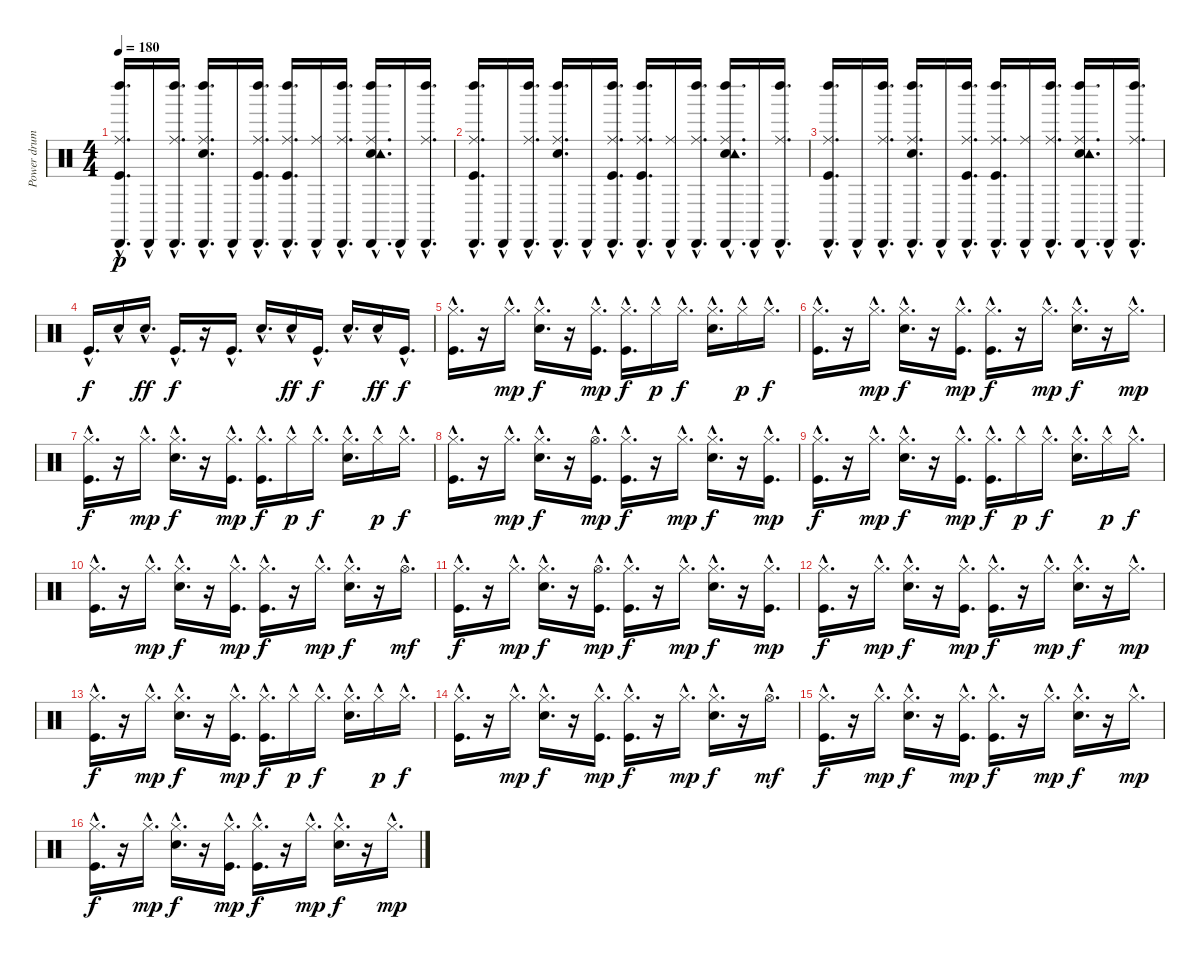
\track ("Power drum" "Power drum") {instrument percussion}
\staff {score}
\articulation defaults
\ts (4 4)
\tempo 180
\clef neutral
\ks c
("Kick (hit)"{hac} "Ride (middle)"{hac} "Left Maraca (hit)"{hac} "Cabasa (hit)"{hac}).16{d dy p} "Cabasa (hit)"{hac}.16 ("Ride (middle)"{hac} "Left Maraca (hit)"{hac} "Cabasa (hit)"{hac}).16{d} ("Snare (hit) 2"{hac} "Ride (middle)"{hac} "Left Maraca (hit)"{hac} "Cabasa (hit)"{hac}).16{d} "Cabasa (hit)"{hac}.16 ("Kick (hit)"{hac} "Ride (middle)"{hac} "Left Maraca (hit)"{hac} "Cabasa (hit)"{hac}).16{d} ("Kick (hit)"{hac} "Ride (middle)"{hac} "Left Maraca (hit)"{hac} "Cabasa (hit)"{hac}).16{d} ("Ride (middle)"{hac} "Cabasa (hit)"{hac}).16 ("Ride (middle)"{hac} "Left Maraca (hit)"{hac} "Cabasa (hit)"{hac}).16{d} ("Snare (hit) 2"{hac} "Ride (middle)"{hac} "Tambourine (hit)"{hac} "Left Maraca (hit)"{hac} "Cabasa (hit)"{hac}).16{d} "Cabasa (hit)"{hac}.16 ("Ride (middle)"{hac} "Left Maraca (hit)"{hac} "Cabasa (hit)"{hac}).16{d} |
("Kick (hit)"{hac} "Ride (middle)"{hac} "Left Maraca (hit)"{hac} "Cabasa (hit)"{hac}).16{d} "Cabasa (hit)"{hac}.16 ("Ride (middle)"{hac} "Left Maraca (hit)"{hac} "Cabasa (hit)"{hac}).16{d} ("Snare (hit) 2"{hac} "Ride (middle)"{hac} "Left Maraca (hit)"{hac} "Cabasa (hit)"{hac}).16{d} "Cabasa (hit)"{hac}.16 ("Kick (hit)"{hac} "Ride (middle)"{hac} "Left Maraca (hit)"{hac} "Cabasa (hit)"{hac}).16{d} ("Kick (hit)"{hac} "Ride (middle)"{hac} "Left Maraca (hit)"{hac} "Cabasa (hit)"{hac}).16{d} ("Ride (middle)"{hac} "Cabasa (hit)"{hac}).16 ("Ride (middle)"{hac} "Left Maraca (hit)"{hac} "Cabasa (hit)"{hac}).16{d} ("Snare (hit) 2"{hac} "Ride (middle)"{hac} "Tambourine (hit)"{hac} "Left Maraca (hit)"{hac} "Cabasa (hit)"{hac}).16{d} "Cabasa (hit)"{hac}.16 ("Ride (middle)"{hac} "Left Maraca (hit)"{hac} "Cabasa (hit)"{hac}).16{d} |
("Kick (hit)"{hac} "Ride (middle)"{hac} "Left Maraca (hit)"{hac} "Cabasa (hit)"{hac}).16{d} "Cabasa (hit)"{hac}.16 ("Ride (middle)"{hac} "Left Maraca (hit)"{hac} "Cabasa (hit)"{hac}).16{d} ("Snare (hit) 2"{hac} "Ride (middle)"{hac} "Left Maraca (hit)"{hac} "Cabasa (hit)"{hac}).16{d} "Cabasa (hit)"{hac}.16 ("Kick (hit)"{hac} "Ride (middle)"{hac} "Left Maraca (hit)"{hac} "Cabasa (hit)"{hac}).16{d} ("Kick (hit)"{hac} "Ride (middle)"{hac} "Left Maraca (hit)"{hac} "Cabasa (hit)"{hac}).16{d} ("Ride (middle)"{hac} "Cabasa (hit)"{hac}).16 ("Ride (middle)"{hac} "Left Maraca (hit)"{hac} "Cabasa (hit)"{hac}).16{d} ("Snare (hit) 2"{hac} "Ride (middle)"{hac} "Tambourine (hit)"{hac} "Left Maraca (hit)"{hac} "Cabasa (hit)"{hac}).16{d} "Cabasa (hit)"{hac}.16 ("Ride (middle)"{hac} "Left Maraca (hit)"{hac} "Cabasa (hit)"{hac}).16{d} |
"Kick (hit)"{hac}.16{d dy f} "Snare (hit) 2"{hac}.16 "Snare (hit) 2"{hac}.16{d dy ff} "Kick (hit)"{hac}.16{d dy f} r.16 "Kick (hit)"{hac}.16{d} "Snare (hit) 2"{hac}.16{d} "Snare (hit) 2"{hac}.16{dy ff} "Kick (hit)"{hac}.16{d dy f} "Snare (hit) 2"{hac}.16{d} "Snare (hit) 2"{hac}.16{dy ff} "Kick (hit)"{hac}.16{d dy f} |
("Kick (hit)"{hac} "Hi-Hat (closed)"{hac}).16{d} r.16 "Hi-Hat (closed)"{hac}.16{d dy mp} ("Snare (hit) 2"{hac} "Hi-Hat (closed)"{hac}).16{d dy f} r.16 ("Kick (hit)"{hac} "Hi-Hat (closed)"{hac}).16{d dy mp} ("Kick (hit)"{hac} "Hi-Hat (closed)"{hac}).16{d dy f} "Hi-Hat (closed)"{hac}.16{dy p} "Hi-Hat (closed)"{hac}.16{d dy f} ("Snare (hit) 2"{hac} "Hi-Hat (closed)"{hac}).16{d} "Hi-Hat (closed)"{hac}.16{dy p} "Hi-Hat (closed)"{hac}.16{d dy f} |
("Kick (hit)"{hac} "Hi-Hat (closed)"{hac}).16{d} r.16 "Hi-Hat (closed)"{hac}.16{d dy mp} ("Snare (hit) 2"{hac} "Hi-Hat (closed)"{hac}).16{d dy f} r.16 ("Kick (hit)"{hac} "Hi-Hat (closed)"{hac}).16{d dy mp} ("Kick (hit)"{hac} "Hi-Hat (closed)"{hac}).16{d dy f} r.16 "Hi-Hat (closed)"{hac}.16{d dy mp} ("Snare (hit) 2"{hac} "Hi-Hat (closed)"{hac}).16{d dy f} r.16 "Hi-Hat (closed)"{hac}.16{d dy mp} |
("Kick (hit)"{hac} "Hi-Hat (closed)"{hac}).16{d dy f} r.16 "Hi-Hat (closed)"{hac}.16{d dy mp} ("Snare (hit) 2"{hac} "Hi-Hat (closed)"{hac}).16{d dy f} r.16 ("Kick (hit)"{hac} "Hi-Hat (closed)"{hac}).16{d dy mp} ("Kick (hit)"{hac} "Hi-Hat (closed)"{hac}).16{d dy f} "Hi-Hat (closed)"{hac}.16{dy p} "Hi-Hat (closed)"{hac}.16{d dy f} ("Snare (hit) 2"{hac} "Hi-Hat (closed)"{hac}).16{d} "Hi-Hat (closed)"{hac}.16{dy p} "Hi-Hat (closed)"{hac}.16{d dy f} |
("Kick (hit)"{hac} "Hi-Hat (closed)"{hac}).16{d} r.16 "Hi-Hat (closed)"{hac}.16{d dy mp} ("Snare (hit) 2"{hac} "Hi-Hat (closed)"{hac}).16{d dy f} r.16 ("Kick (hit)"{hac} "Hi-Hat (open)"{hac}).16{d dy mp} ("Kick (hit)"{hac} "Hi-Hat (closed)"{hac}).16{d dy f} r.16 "Hi-Hat (closed)"{hac}.16{d dy mp} ("Snare (hit) 2"{hac} "Hi-Hat (closed)"{hac}).16{d dy f} r.16 ("Kick (hit)"{hac} "Hi-Hat (closed)"{hac}).16{d dy mp} |
("Kick (hit)"{hac} "Hi-Hat (closed)"{hac}).16{d dy f} r.16 "Hi-Hat (closed)"{hac}.16{d dy mp} ("Snare (hit) 2"{hac} "Hi-Hat (closed)"{hac}).16{d dy f} r.16 ("Kick (hit)"{hac} "Hi-Hat (closed)"{hac}).16{d dy mp} ("Kick (hit)"{hac} "Hi-Hat (closed)"{hac}).16{d dy f} "Hi-Hat (closed)"{hac}.16{dy p} "Hi-Hat (closed)"{hac}.16{d dy f} ("Snare (hit) 2"{hac} "Hi-Hat (closed)"{hac}).16{d} "Hi-Hat (closed)"{hac}.16{dy p} "Hi-Hat (closed)"{hac}.16{d dy f} |
("Kick (hit)"{hac} "Hi-Hat (closed)"{hac}).16{d} r.16 "Hi-Hat (closed)"{hac}.16{d dy mp} ("Snare (hit) 2"{hac} "Hi-Hat (closed)"{hac}).16{d dy f} r.16 ("Kick (hit)"{hac} "Hi-Hat (closed)"{hac}).16{d dy mp} ("Kick (hit)"{hac} "Hi-Hat (closed)"{hac}).16{d dy f} r.16 "Hi-Hat (closed)"{hac}.16{d dy mp} ("Snare (hit) 2"{hac} "Hi-Hat (closed)"{hac}).16{d dy f} r.16 "Hi-Hat (open)"{hac}.16{d dy mf} |
("Kick (hit)"{hac} "Hi-Hat (closed)"{hac}).16{d dy f} r.16 "Hi-Hat (closed)"{hac}.16{d dy mp} ("Snare (hit) 2"{hac} "Hi-Hat (closed)"{hac}).16{d dy f} r.16 ("Kick (hit)"{hac} "Hi-Hat (open)"{hac}).16{d dy mp} ("Kick (hit)"{hac} "Hi-Hat (closed)"{hac}).16{d dy f} r.16 "Hi-Hat (closed)"{hac}.16{d dy mp} ("Snare (hit) 2"{hac} "Hi-Hat (closed)"{hac}).16{d dy f} r.16 ("Kick (hit)"{hac} "Hi-Hat (closed)"{hac}).16{d dy mp} |
("Kick (hit)"{hac} "Hi-Hat (closed)"{hac}).16{d dy f} r.16 "Hi-Hat (closed)"{hac}.16{d dy mp} ("Snare (hit) 2"{hac} "Hi-Hat (closed)"{hac}).16{d dy f} r.16 ("Kick (hit)"{hac} "Hi-Hat (closed)"{hac}).16{d dy mp} ("Kick (hit)"{hac} "Hi-Hat (closed)"{hac}).16{d dy f} r.16 "Hi-Hat (closed)"{hac}.16{d dy mp} ("Snare (hit) 2"{hac} "Hi-Hat (closed)"{hac}).16{d dy f} r.16 "Hi-Hat (closed)"{hac}.16{d dy mp} |
("Kick (hit)"{hac} "Hi-Hat (closed)"{hac}).16{d dy f} r.16 "Hi-Hat (closed)"{hac}.16{d dy mp} ("Snare (hit) 2"{hac} "Hi-Hat (closed)"{hac}).16{d dy f} r.16 ("Kick (hit)"{hac} "Hi-Hat (closed)"{hac}).16{d dy mp} ("Kick (hit)"{hac} "Hi-Hat (closed)"{hac}).16{d dy f} "Hi-Hat (closed)"{hac}.16{dy p} "Hi-Hat (closed)"{hac}.16{d dy f} ("Snare (hit) 2"{hac} "Hi-Hat (closed)"{hac}).16{d} "Hi-Hat (closed)"{hac}.16{dy p} "Hi-Hat (closed)"{hac}.16{d dy f} |
("Kick (hit)"{hac} "Hi-Hat (closed)"{hac}).16{d} r.16 "Hi-Hat (closed)"{hac}.16{d dy mp} ("Snare (hit) 2"{hac} "Hi-Hat (closed)"{hac}).16{d dy f} r.16 ("Kick (hit)"{hac} "Hi-Hat (closed)"{hac}).16{d dy mp} ("Kick (hit)"{hac} "Hi-Hat (closed)"{hac}).16{d dy f} r.16 "Hi-Hat (closed)"{hac}.16{d dy mp} ("Snare (hit) 2"{hac} "Hi-Hat (closed)"{hac}).16{d dy f} r.16 "Hi-Hat (open)"{hac}.16{d dy mf} |
("Kick (hit)"{hac} "Hi-Hat (closed)"{hac}).16{d dy f} r.16 "Hi-Hat (closed)"{hac}.16{d dy mp} ("Snare (hit) 2"{hac} "Hi-Hat (closed)"{hac}).16{d dy f} r.16 ("Kick (hit)"{hac} "Hi-Hat (closed)"{hac}).16{d dy mp} ("Kick (hit)"{hac} "Hi-Hat (closed)"{hac}).16{d dy f} r.16 "Hi-Hat (closed)"{hac}.16{d dy mp} ("Snare (hit) 2"{hac} "Hi-Hat (closed)"{hac}).16{d dy f} r.16 "Hi-Hat (closed)"{hac}.16{d dy mp} |
("Kick (hit)"{hac} "Hi-Hat (closed)"{hac}).16{d dy f} r.16 "Hi-Hat (closed)"{hac}.16{d dy mp} ("Snare (hit) 2"{hac} "Hi-Hat (closed)"{hac}).16{d dy f} r.16 ("Kick (hit)"{hac} "Hi-Hat (closed)"{hac}).16{d dy mp} ("Kick (hit)"{hac} "Hi-Hat (closed)"{hac}).16{d dy f} r.16 "Hi-Hat (closed)"{hac}.16{d dy mp} ("Snare (hit) 2"{hac} "Hi-Hat (closed)"{hac}).16{d dy f} r.16 "Hi-Hat (closed)"{hac}.16{d dy mp}
